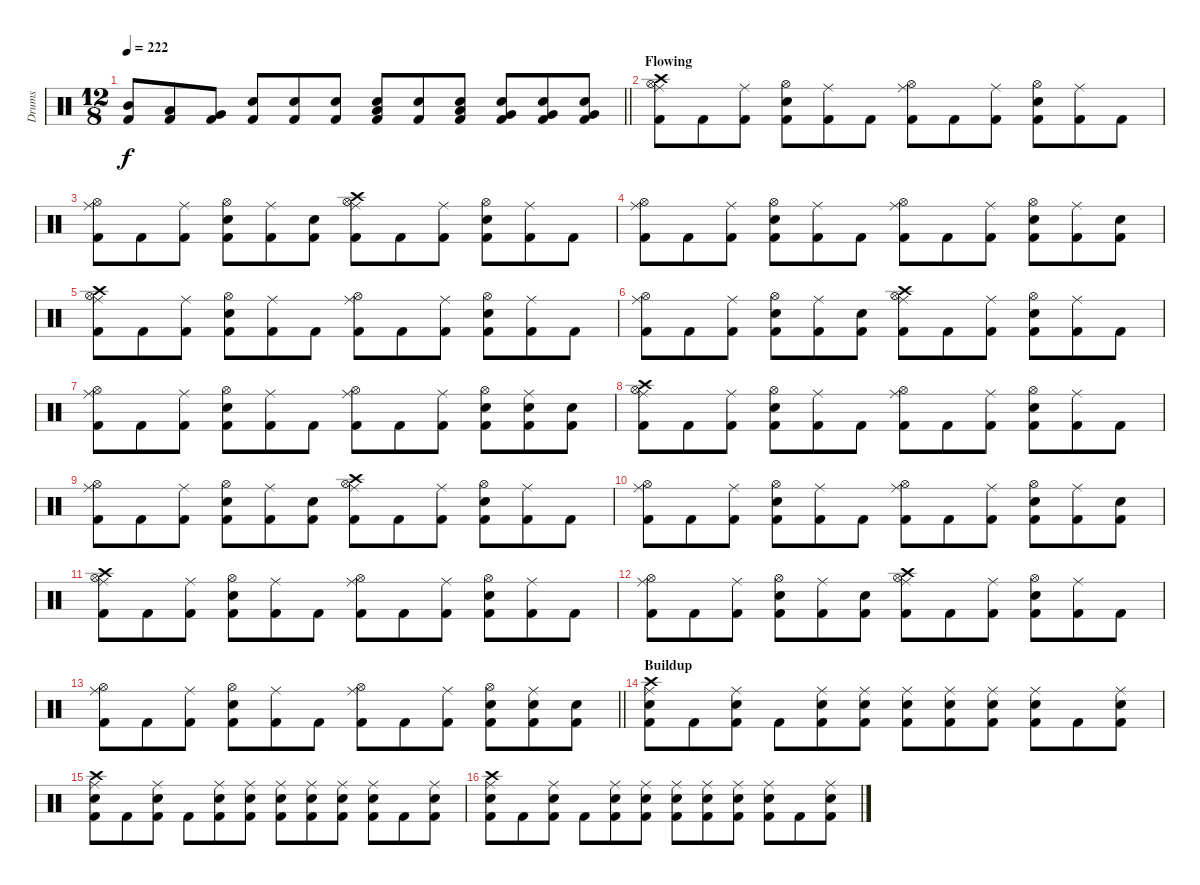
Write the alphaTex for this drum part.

\track ("Drums" "Drums") {instrument percussion}
\staff {score}
\articulation defaults
\ts (12 8)
\tempo 222
\clef neutral
\barLineRight lightlight
\ks c
("Mid Tom (hit)" "Kick (hit) 2").8{dy f} ("Low Tom (hit)" "Kick (hit) 2").8 ("Very Low Tom (hit)" "Kick (hit) 2").8 ("Snare (hit) 2" "Kick (hit) 2").8 ("Snare (hit) 2" "Kick (hit) 2").8 ("Snare (hit) 2" "Kick (hit) 2").8 ("Low Tom (hit)" "Snare (hit) 2" "Kick (hit) 2").8 ("Snare (hit) 2" "Kick (hit) 2").8 ("Low Floor Tom (hit)" "Snare (hit) 2" "Kick (hit) 2").8 ("Very Low Tom (hit)" "Snare (hit) 2" "Kick (hit) 2").8 ("Very Low Tom (hit)" "Snare (hit) 2" "Kick (hit) 2").8 ("Very Low Tom (hit)" "Snare (hit) 2" "Kick (hit) 2").8 |
\section ("" "Flowing")
("Crash high (hit)" "Ride (middle)" "Hi-Hat (open)" "Kick (hit) 2").8 "Kick (hit) 2".8 ("Ride (middle)" "Kick (hit) 2").8 ("Hi-Hat (open)" "Snare (hit) 2" "Kick (hit) 2").8 ("Ride (middle)" "Kick (hit) 2").8 "Kick (hit) 2".8 ("Ride (middle)" "Hi-Hat (open)" "Kick (hit) 2").8 "Kick (hit) 2".8 ("Ride (middle)" "Kick (hit) 2").8 ("Hi-Hat (open)" "Snare (hit) 2" "Kick (hit) 2").8 ("Ride (middle)" "Kick (hit) 2").8 "Kick (hit) 2".8 |
("Ride (middle)" "Hi-Hat (open)" "Kick (hit) 2").8 "Kick (hit) 2".8 ("Ride (middle)" "Kick (hit) 2").8 ("Hi-Hat (open)" "Snare (hit) 2" "Kick (hit) 2").8 ("Ride (middle)" "Kick (hit) 2").8 ("Snare (hit) 2" "Kick (hit) 2").8 ("Crash high (hit)" "Ride (middle)" "Hi-Hat (open)" "Kick (hit) 2").8 "Kick (hit) 2".8 ("Ride (middle)" "Kick (hit) 2").8 ("Hi-Hat (open)" "Snare (hit) 2" "Kick (hit) 2").8 ("Ride (middle)" "Kick (hit) 2").8 "Kick (hit) 2".8 |
("Ride (middle)" "Hi-Hat (open)" "Kick (hit) 2").8 "Kick (hit) 2".8 ("Ride (middle)" "Kick (hit) 2").8 ("Hi-Hat (open)" "Snare (hit) 2" "Kick (hit) 2").8 ("Ride (middle)" "Kick (hit) 2").8 "Kick (hit) 2".8 ("Ride (middle)" "Hi-Hat (open)" "Kick (hit) 2").8 "Kick (hit) 2".8 ("Ride (middle)" "Kick (hit) 2").8 ("Hi-Hat (open)" "Snare (hit) 2" "Kick (hit) 2").8 ("Ride (middle)" "Kick (hit) 2").8 ("Snare (hit) 2" "Kick (hit) 2").8 |
("Crash high (hit)" "Ride (middle)" "Hi-Hat (open)" "Kick (hit) 2").8 "Kick (hit) 2".8 ("Ride (middle)" "Kick (hit) 2").8 ("Hi-Hat (open)" "Snare (hit) 2" "Kick (hit) 2").8 ("Ride (middle)" "Kick (hit) 2").8 "Kick (hit) 2".8 ("Ride (middle)" "Hi-Hat (open)" "Kick (hit) 2").8 "Kick (hit) 2".8 ("Ride (middle)" "Kick (hit) 2").8 ("Hi-Hat (open)" "Snare (hit) 2" "Kick (hit) 2").8 ("Ride (middle)" "Kick (hit) 2").8 "Kick (hit) 2".8 |
("Ride (middle)" "Hi-Hat (open)" "Kick (hit) 2").8 "Kick (hit) 2".8 ("Ride (middle)" "Kick (hit) 2").8 ("Hi-Hat (open)" "Snare (hit) 2" "Kick (hit) 2").8 ("Ride (middle)" "Kick (hit) 2").8 ("Snare (hit) 2" "Kick (hit) 2").8 ("Crash high (hit)" "Ride (middle)" "Hi-Hat (open)" "Kick (hit) 2").8 "Kick (hit) 2".8 ("Ride (middle)" "Kick (hit) 2").8 ("Hi-Hat (open)" "Snare (hit) 2" "Kick (hit) 2").8 ("Ride (middle)" "Kick (hit) 2").8 "Kick (hit) 2".8 |
("Ride (middle)" "Hi-Hat (open)" "Kick (hit) 2").8 "Kick (hit) 2".8 ("Ride (middle)" "Kick (hit) 2").8 ("Hi-Hat (open)" "Snare (hit) 2" "Kick (hit) 2").8 ("Ride (middle)" "Kick (hit) 2").8 "Kick (hit) 2".8 ("Ride (middle)" "Hi-Hat (open)" "Kick (hit) 2").8 "Kick (hit) 2".8 ("Ride (middle)" "Kick (hit) 2").8 ("Hi-Hat (open)" "Snare (hit) 2" "Kick (hit) 2").8 ("Ride (middle)" "Snare (hit) 2" "Kick (hit) 2").8 ("Snare (hit) 2" "Kick (hit) 2").8 |
("Crash high (hit)" "Ride (middle)" "Hi-Hat (open)" "Kick (hit) 2").8 "Kick (hit) 2".8 ("Ride (middle)" "Kick (hit) 2").8 ("Hi-Hat (open)" "Snare (hit) 2" "Kick (hit) 2").8 ("Ride (middle)" "Kick (hit) 2").8 "Kick (hit) 2".8 ("Ride (middle)" "Hi-Hat (open)" "Kick (hit) 2").8 "Kick (hit) 2".8 ("Ride (middle)" "Kick (hit) 2").8 ("Hi-Hat (open)" "Snare (hit) 2" "Kick (hit) 2").8 ("Ride (middle)" "Kick (hit) 2").8 "Kick (hit) 2".8 |
("Ride (middle)" "Hi-Hat (open)" "Kick (hit) 2").8 "Kick (hit) 2".8 ("Ride (middle)" "Kick (hit) 2").8 ("Hi-Hat (open)" "Snare (hit) 2" "Kick (hit) 2").8 ("Ride (middle)" "Kick (hit) 2").8 ("Snare (hit) 2" "Kick (hit) 2").8 ("Crash high (hit)" "Ride (middle)" "Hi-Hat (open)" "Kick (hit) 2").8 "Kick (hit) 2".8 ("Ride (middle)" "Kick (hit) 2").8 ("Hi-Hat (open)" "Snare (hit) 2" "Kick (hit) 2").8 ("Ride (middle)" "Kick (hit) 2").8 "Kick (hit) 2".8 |
("Ride (middle)" "Hi-Hat (open)" "Kick (hit) 2").8 "Kick (hit) 2".8 ("Ride (middle)" "Kick (hit) 2").8 ("Hi-Hat (open)" "Snare (hit) 2" "Kick (hit) 2").8 ("Ride (middle)" "Kick (hit) 2").8 "Kick (hit) 2".8 ("Ride (middle)" "Hi-Hat (open)" "Kick (hit) 2").8 "Kick (hit) 2".8 ("Ride (middle)" "Kick (hit) 2").8 ("Hi-Hat (open)" "Snare (hit) 2" "Kick (hit) 2").8 ("Ride (middle)" "Kick (hit) 2").8 ("Snare (hit) 2" "Kick (hit) 2").8 |
("Crash high (hit)" "Ride (middle)" "Hi-Hat (open)" "Kick (hit) 2").8 "Kick (hit) 2".8 ("Ride (middle)" "Kick (hit) 2").8 ("Hi-Hat (open)" "Snare (hit) 2" "Kick (hit) 2").8 ("Ride (middle)" "Kick (hit) 2").8 "Kick (hit) 2".8 ("Ride (middle)" "Hi-Hat (open)" "Kick (hit) 2").8 "Kick (hit) 2".8 ("Ride (middle)" "Kick (hit) 2").8 ("Hi-Hat (open)" "Snare (hit) 2" "Kick (hit) 2").8 ("Ride (middle)" "Kick (hit) 2").8 "Kick (hit) 2".8 |
("Ride (middle)" "Hi-Hat (open)" "Kick (hit) 2").8 "Kick (hit) 2".8 ("Ride (middle)" "Kick (hit) 2").8 ("Hi-Hat (open)" "Snare (hit) 2" "Kick (hit) 2").8 ("Ride (middle)" "Kick (hit) 2").8 ("Snare (hit) 2" "Kick (hit) 2").8 ("Crash high (hit)" "Ride (middle)" "Hi-Hat (open)" "Kick (hit) 2").8 "Kick (hit) 2".8 ("Ride (middle)" "Kick (hit) 2").8 ("Hi-Hat (open)" "Snare (hit) 2" "Kick (hit) 2").8 ("Ride (middle)" "Kick (hit) 2").8 "Kick (hit) 2".8 |
\barLineRight lightlight
("Ride (middle)" "Hi-Hat (open)" "Kick (hit) 2").8 "Kick (hit) 2".8 ("Ride (middle)" "Kick (hit) 2").8 ("Hi-Hat (open)" "Snare (hit) 2" "Kick (hit) 2").8 ("Ride (middle)" "Kick (hit) 2").8 "Kick (hit) 2".8 ("Ride (middle)" "Hi-Hat (open)" "Kick (hit) 2").8 "Kick (hit) 2".8 ("Ride (middle)" "Kick (hit) 2").8 ("Hi-Hat (open)" "Snare (hit) 2" "Kick (hit) 2").8 ("Ride (middle)" "Snare (hit) 2" "Kick (hit) 2").8 ("Snare (hit) 2" "Kick (hit) 2").8 |
\section ("" "Buildup")
("Crash high (hit)" "Ride (middle)" "Snare (hit) 2" "Kick (hit) 2").8 "Kick (hit) 2".8 ("Ride (middle)" "Snare (hit) 2" "Kick (hit) 2").8 "Kick (hit) 2".8 ("Ride (middle)" "Snare (hit) 2" "Kick (hit) 2").8 ("Ride (middle)" "Snare (hit) 2" "Kick (hit) 2").8 ("Ride (middle)" "Snare (hit) 2" "Kick (hit) 2").8 ("Ride (middle)" "Snare (hit) 2" "Kick (hit) 2").8 ("Ride (middle)" "Snare (hit) 2" "Kick (hit) 2").8 ("Ride (middle)" "Snare (hit) 2" "Kick (hit) 2").8 "Kick (hit) 2".8 ("Ride (middle)" "Snare (hit) 2" "Kick (hit) 2").8 |
("Crash high (hit)" "Ride (middle)" "Snare (hit) 2" "Kick (hit) 2").8 "Kick (hit) 2".8 ("Ride (middle)" "Snare (hit) 2" "Kick (hit) 2").8 "Kick (hit) 2".8 ("Ride (middle)" "Snare (hit) 2" "Kick (hit) 2").8 ("Ride (middle)" "Snare (hit) 2" "Kick (hit) 2").8 ("Ride (middle)" "Snare (hit) 2" "Kick (hit) 2").8 ("Ride (middle)" "Snare (hit) 2" "Kick (hit) 2").8 ("Ride (middle)" "Snare (hit) 2" "Kick (hit) 2").8 ("Ride (middle)" "Snare (hit) 2" "Kick (hit) 2").8 "Kick (hit) 2".8 ("Ride (middle)" "Snare (hit) 2" "Kick (hit) 2").8 |
("Crash high (hit)" "Ride (middle)" "Snare (hit) 2" "Kick (hit) 2").8 "Kick (hit) 2".8 ("Ride (middle)" "Snare (hit) 2" "Kick (hit) 2").8 "Kick (hit) 2".8 ("Ride (middle)" "Snare (hit) 2" "Kick (hit) 2").8 ("Ride (middle)" "Snare (hit) 2" "Kick (hit) 2").8 ("Ride (middle)" "Snare (hit) 2" "Kick (hit) 2").8 ("Ride (middle)" "Snare (hit) 2" "Kick (hit) 2").8 ("Ride (middle)" "Snare (hit) 2" "Kick (hit) 2").8 ("Ride (middle)" "Snare (hit) 2" "Kick (hit) 2").8 "Kick (hit) 2".8 ("Ride (middle)" "Snare (hit) 2" "Kick (hit) 2").8
